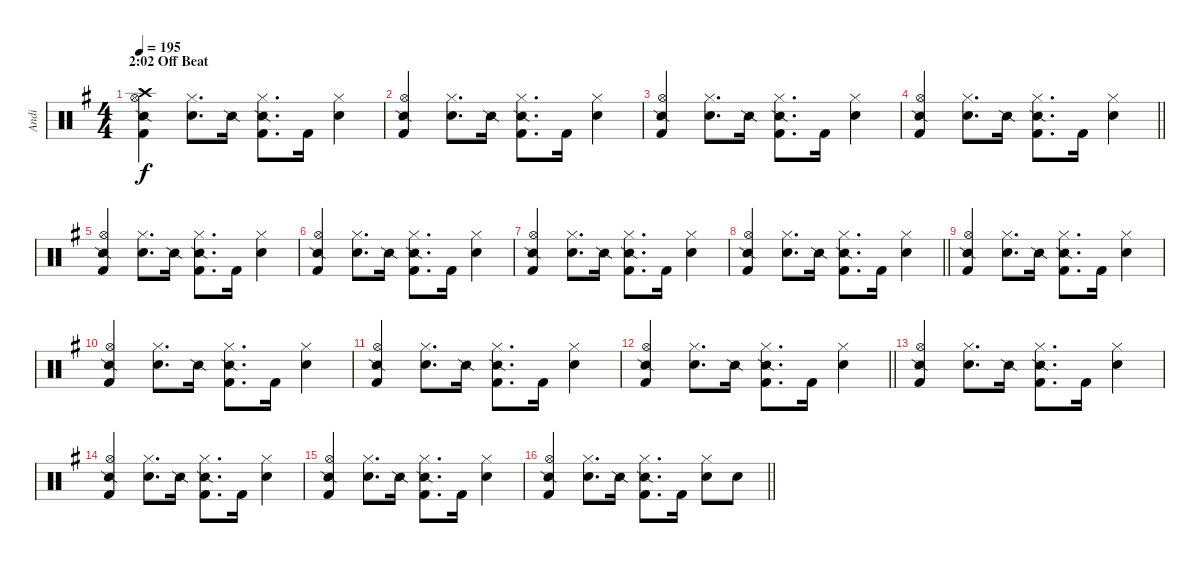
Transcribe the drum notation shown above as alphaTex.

\track ("Andi" "Andi") {instrument percussion}
\staff {score}
\articulation defaults
\ts (4 4)
\section ("" "2:02 Off Beat")
\tempo 195
\clef neutral
\ks g
("Crash high (hit)" "Snare (side stick) 2" "Hi-Hat (open)" "Kick (hit) 2").4{dy f} ("Hi-Hat (closed)" "Snare (hit) 2").8{d} "Snare (side stick) 2".16 ("Snare (side stick) 2" "Hi-Hat (closed)" "Kick (hit) 2").8{d} "Kick (hit) 2".16 ("Hi-Hat (closed)" "Snare (hit) 2").4 |
("Snare (side stick) 2" "Hi-Hat (open)" "Kick (hit) 2").4 ("Hi-Hat (closed)" "Snare (hit) 2").8{d} "Snare (side stick) 2".16 ("Snare (side stick) 2" "Hi-Hat (closed)" "Kick (hit) 2").8{d} "Kick (hit) 2".16 ("Hi-Hat (closed)" "Snare (hit) 2").4 |
("Snare (side stick) 2" "Hi-Hat (open)" "Kick (hit) 2").4 ("Hi-Hat (closed)" "Snare (hit) 2").8{d} "Snare (side stick) 2".16 ("Snare (side stick) 2" "Hi-Hat (closed)" "Kick (hit) 2").8{d} "Kick (hit) 2".16 ("Hi-Hat (closed)" "Snare (hit) 2").4 |
\barLineRight lightlight
("Snare (side stick) 2" "Hi-Hat (open)" "Kick (hit) 2").4 ("Hi-Hat (closed)" "Snare (hit) 2").8{d} "Snare (side stick) 2".16 ("Snare (side stick) 2" "Hi-Hat (closed)" "Kick (hit) 2").8{d} "Kick (hit) 2".16 ("Hi-Hat (closed)" "Snare (hit) 2").4 |
("Snare (side stick) 2" "Hi-Hat (open)" "Kick (hit) 2").4 ("Hi-Hat (closed)" "Snare (hit) 2").8{d} "Snare (side stick) 2".16 ("Snare (side stick) 2" "Hi-Hat (closed)" "Kick (hit) 2").8{d} "Kick (hit) 2".16 ("Hi-Hat (closed)" "Snare (hit) 2").4 |
("Snare (side stick) 2" "Hi-Hat (open)" "Kick (hit) 2").4 ("Hi-Hat (closed)" "Snare (hit) 2").8{d} "Snare (side stick) 2".16 ("Snare (side stick) 2" "Hi-Hat (closed)" "Kick (hit) 2").8{d} "Kick (hit) 2".16 ("Hi-Hat (closed)" "Snare (hit) 2").4 |
("Snare (side stick) 2" "Hi-Hat (open)" "Kick (hit) 2").4 ("Hi-Hat (closed)" "Snare (hit) 2").8{d} "Snare (side stick) 2".16 ("Snare (side stick) 2" "Hi-Hat (closed)" "Kick (hit) 2").8{d} "Kick (hit) 2".16 ("Hi-Hat (closed)" "Snare (hit) 2").4 |
\barLineRight lightlight
("Snare (side stick) 2" "Hi-Hat (open)" "Kick (hit) 2").4 ("Hi-Hat (closed)" "Snare (hit) 2").8{d} "Snare (side stick) 2".16 ("Snare (side stick) 2" "Hi-Hat (closed)" "Kick (hit) 2").8{d} "Kick (hit) 2".16 ("Hi-Hat (closed)" "Snare (hit) 2").4 |
("Snare (side stick) 2" "Hi-Hat (open)" "Kick (hit) 2").4 ("Hi-Hat (closed)" "Snare (hit) 2").8{d} "Snare (side stick) 2".16 ("Snare (side stick) 2" "Hi-Hat (closed)" "Kick (hit) 2").8{d} "Kick (hit) 2".16 ("Hi-Hat (closed)" "Snare (hit) 2").4 |
("Snare (side stick) 2" "Hi-Hat (open)" "Kick (hit) 2").4 ("Hi-Hat (closed)" "Snare (hit) 2").8{d} "Snare (side stick) 2".16 ("Snare (side stick) 2" "Hi-Hat (closed)" "Kick (hit) 2").8{d} "Kick (hit) 2".16 ("Hi-Hat (closed)" "Snare (hit) 2").4 |
("Snare (side stick) 2" "Hi-Hat (open)" "Kick (hit) 2").4 ("Hi-Hat (closed)" "Snare (hit) 2").8{d} "Snare (side stick) 2".16 ("Snare (side stick) 2" "Hi-Hat (closed)" "Kick (hit) 2").8{d} "Kick (hit) 2".16 ("Hi-Hat (closed)" "Snare (hit) 2").4 |
\barLineRight lightlight
("Snare (side stick) 2" "Hi-Hat (open)" "Kick (hit) 2").4 ("Hi-Hat (closed)" "Snare (hit) 2").8{d} "Snare (side stick) 2".16 ("Snare (side stick) 2" "Hi-Hat (closed)" "Kick (hit) 2").8{d} "Kick (hit) 2".16 ("Hi-Hat (closed)" "Snare (hit) 2").4 |
("Snare (side stick) 2" "Hi-Hat (open)" "Kick (hit) 2").4 ("Hi-Hat (closed)" "Snare (hit) 2").8{d} "Snare (side stick) 2".16 ("Snare (side stick) 2" "Hi-Hat (closed)" "Kick (hit) 2").8{d} "Kick (hit) 2".16 ("Hi-Hat (closed)" "Snare (hit) 2").4 |
("Snare (side stick) 2" "Hi-Hat (open)" "Kick (hit) 2").4 ("Hi-Hat (closed)" "Snare (hit) 2").8{d} "Snare (side stick) 2".16 ("Snare (side stick) 2" "Hi-Hat (closed)" "Kick (hit) 2").8{d} "Kick (hit) 2".16 ("Hi-Hat (closed)" "Snare (hit) 2").4 |
("Snare (side stick) 2" "Hi-Hat (open)" "Kick (hit) 2").4 ("Hi-Hat (closed)" "Snare (hit) 2").8{d} "Snare (side stick) 2".16 ("Snare (side stick) 2" "Hi-Hat (closed)" "Kick (hit) 2").8{d} "Kick (hit) 2".16 ("Hi-Hat (closed)" "Snare (hit) 2").4 |
\barLineRight lightlight
("Snare (side stick) 2" "Hi-Hat (open)" "Kick (hit) 2").4 ("Hi-Hat (closed)" "Snare (hit) 2").8{d} "Snare (side stick) 2".16 ("Snare (side stick) 2" "Hi-Hat (closed)" "Kick (hit) 2").8{d} "Kick (hit) 2".16 ("Hi-Hat (closed)" "Snare (hit) 2").8 "Snare (hit) 2".8
